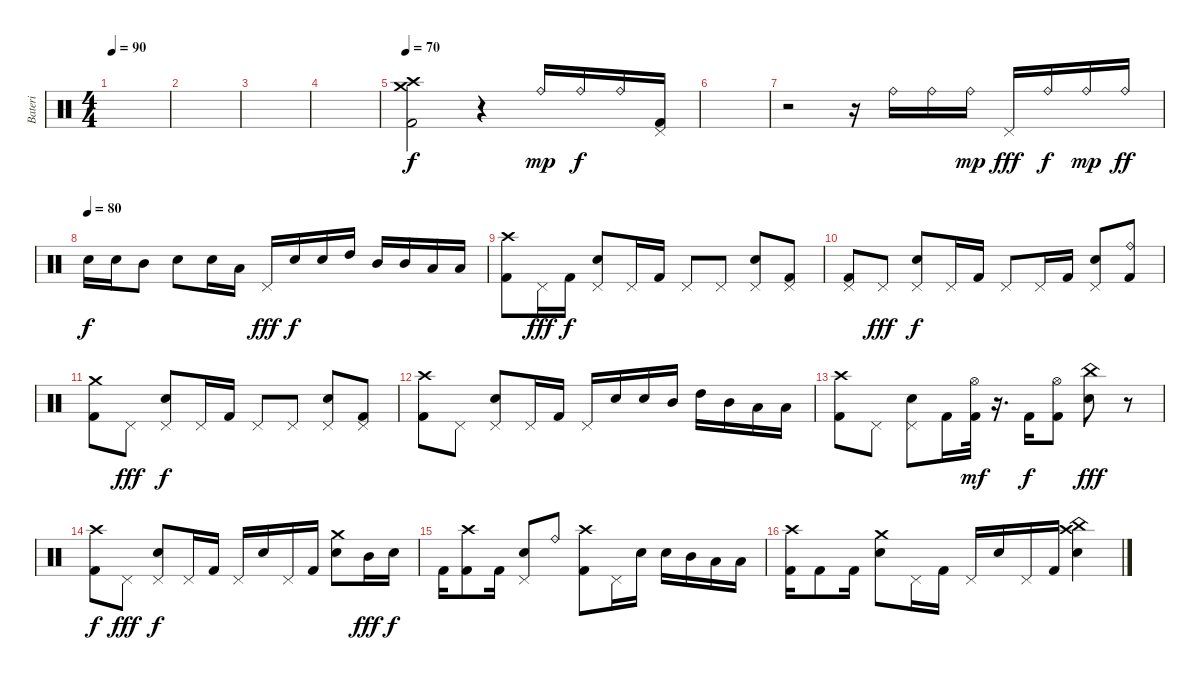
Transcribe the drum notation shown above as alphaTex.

\track ("Bateri" "Bateri") {instrument percussion}
\staff {score}
\articulation defaults
\ts (4 4)
\tempo 90
\tempo 70
\tempo 90
\clef neutral
\ks c
|
|
|
|
\tempo 70
("Crash high (hit)" "Crash medium (hit)" "Kick (hit) 2").2 r.4 "Ride (bell)".16{dy mp} "Ride (bell)".16{dy f} "Ride (bell)".16 ("Pedal Hi-Hat (hit)" "Kick (hit) 2").16 |
|
r.2 r.16 "Ride (bell)".16 "Ride (bell)".16 "Ride (bell)".16{dy mp} "Pedal Hi-Hat (hit)".16{dy fff} "Ride (bell)".16{dy f} "Ride (bell)".16{dy mp} "Ride (bell)".16{dy ff} |
\tempo (80)
"Electric Snare (hit)".16{dy f} "Electric Snare (hit)".16 "Mid Tom (hit)".8 "Electric Snare (hit)".8 "Electric Snare (hit)".16 "Low Tom (hit)".16 "Pedal Hi-Hat (hit)".16{dy fff} "Electric Snare (hit)".16{dy f} "Electric Snare (hit)".16 "High Tom (hit)".16 "Mid Tom (hit)".16 "Mid Tom (hit)".16 "Low Tom (hit)".16 "Low Tom (hit)".16 |
("Crash high (hit)" "Kick (hit) 2").8 "Pedal Hi-Hat (hit)".16{dy fff} "Kick (hit) 2".16{dy f} ("Pedal Hi-Hat (hit)" "Electric Snare (hit)").8 "Pedal Hi-Hat (hit)".16 "Kick (hit) 2".16 "Pedal Hi-Hat (hit)".8 "Pedal Hi-Hat (hit)".8 ("Pedal Hi-Hat (hit)" "Electric Snare (hit)").8 ("Pedal Hi-Hat (hit)" "Kick (hit) 2").8 |
("Pedal Hi-Hat (hit)" "Kick (hit) 2").8 "Pedal Hi-Hat (hit)".8{dy fff} ("Pedal Hi-Hat (hit)" "Electric Snare (hit)").8{dy f} "Pedal Hi-Hat (hit)".16 "Kick (hit) 2".16 "Pedal Hi-Hat (hit)".8 "Pedal Hi-Hat (hit)".16 "Kick (hit) 2".16 ("Pedal Hi-Hat (hit)" "Electric Snare (hit)").8 ("Ride (bell)" "Kick (hit) 2").8 |
("Crash medium (hit)" "Kick (hit) 2").8 "Pedal Hi-Hat (hit)".8{dy fff} ("Pedal Hi-Hat (hit)" "Electric Snare (hit)").8{dy f} "Pedal Hi-Hat (hit)".16 "Kick (hit) 2".16 "Pedal Hi-Hat (hit)".8 "Pedal Hi-Hat (hit)".8 ("Pedal Hi-Hat (hit)" "Electric Snare (hit)").8 ("Pedal Hi-Hat (hit)" "Kick (hit) 2").8 |
("Crash high (hit)" "Kick (hit) 2").8 "Pedal Hi-Hat (hit)".8 ("Pedal Hi-Hat (hit)" "Electric Snare (hit)").8 "Pedal Hi-Hat (hit)".16 "Kick (hit) 2".16 "Pedal Hi-Hat (hit)".16 "Electric Snare (hit)".16 "Electric Snare (hit)".16 "Mid Tom (hit)".16 "High Tom (hit)".16 "Mid Tom (hit)".16 "Low Tom (hit)".16 "Low Tom (hit)".16 |
("Crash high (hit)" "Kick (hit) 2").8 "Pedal Hi-Hat (hit)".8 ("Pedal Hi-Hat (hit)" "Electric Snare (hit)").8 "Kick (hit) 2".16 ("Hi-Hat (open)" "Kick (hit) 2").32{dy mf} r.16{d} "Kick (hit) 2".16{dy f} ("Hi-Hat (open)" "Kick (hit) 2").8 ("China (hit)" "Electric Snare (hit)").8{dy fff} r.8 |
("Crash high (hit)" "Kick (hit) 2").8{dy f} "Pedal Hi-Hat (hit)".8{dy fff} ("Pedal Hi-Hat (hit)" "Electric Snare (hit)").8{dy f} "Pedal Hi-Hat (hit)".16 "Kick (hit) 2".16 "Pedal Hi-Hat (hit)".16 "Electric Snare (hit)".16 "Pedal Hi-Hat (hit)".16 "Kick (hit) 2".16 ("Crash medium (hit)" "Electric Snare (hit)").8 "Mid Tom (hit)".16{dy fff} "Electric Snare (hit)".16{dy f} |
"Kick (hit) 2".16 ("Crash high (hit)" "Kick (hit) 2").8 "Kick (hit) 2".16 ("Pedal Hi-Hat (hit)" "Electric Snare (hit)").8 "Ride (bell)".8 ("Crash high (hit)" "Kick (hit) 2").8 "Pedal Hi-Hat (hit)".16 "Electric Snare (hit)".16 "Electric Snare (hit)".16 "Mid Tom (hit)".16 "Low Tom (hit)".16 "Low Tom (hit)".16 |
("Crash high (hit)" "Kick (hit) 2").16 "Kick (hit) 2".8 "Kick (hit) 2".16 ("Crash medium (hit)" "Electric Snare (hit)").8 "Pedal Hi-Hat (hit)".16 "Kick (hit) 2".16 "Pedal Hi-Hat (hit)".16 "Electric Snare (hit)".16 "Pedal Hi-Hat (hit)".16 "Kick (hit) 2".16 ("Crash high (hit)" "China (hit)" "Electric Snare (hit)").4
